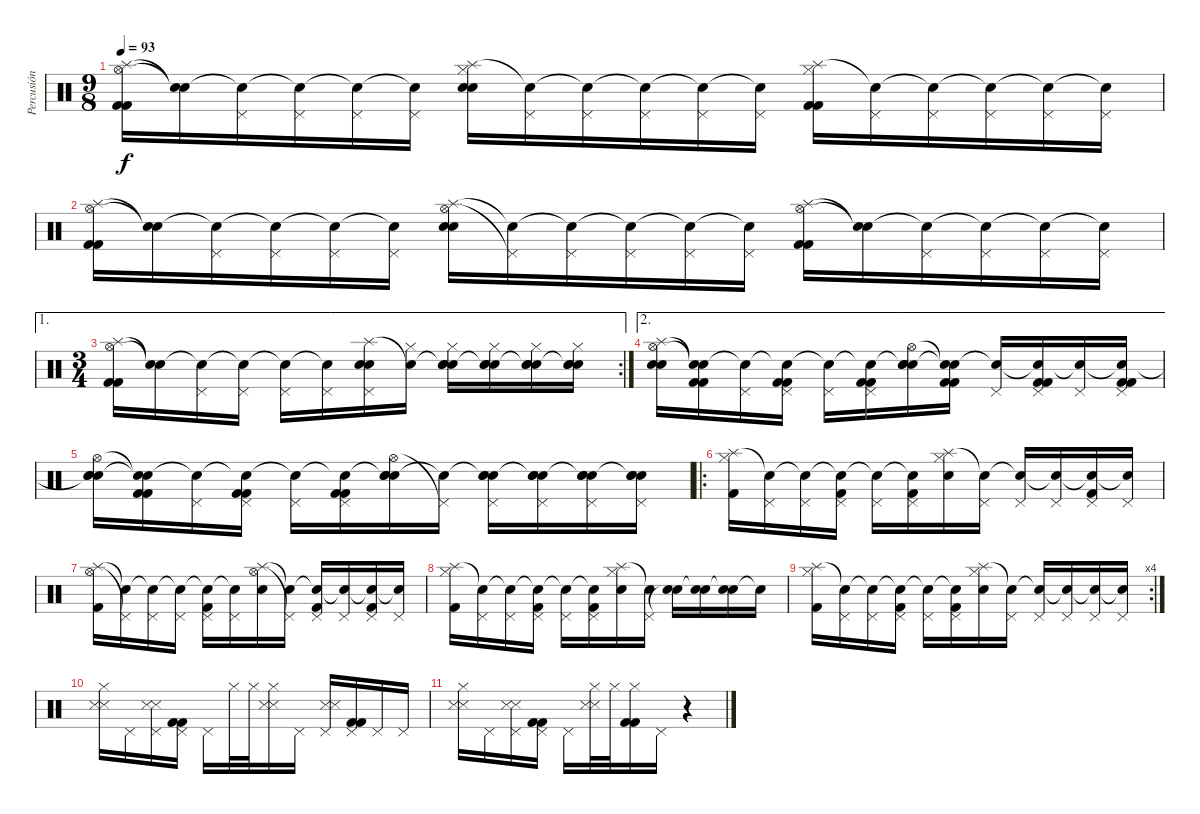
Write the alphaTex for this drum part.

\track ("Percusión" "Percusión") {instrument percussion}
\staff {score}
\articulation defaults
\ts (9 8)
\tempo 93
\clef neutral
\ks c
("Hi-Hat (open)" "Splash (hit)" "Kick (hit) 2" "Kick (hit) 2").16{dy f} ("Snare (hit)"{t} "Snare (hit)"{t}).16 ("Pedal Hi-Hat (hit)" "Snare (hit)"{t}).16 ("Pedal Hi-Hat (hit)" "Snare (hit)"{t}).16 ("Pedal Hi-Hat (hit)" "Snare (hit)"{t}).16 ("Pedal Hi-Hat (hit)" "Snare (hit)"{t}).16 ("Hi-Hat (closed)" "Splash (hit)" "Electric Snare (hit)" "Electric Snare (hit)").16 ("Pedal Hi-Hat (hit)" "Snare (hit)"{t}).16 ("Pedal Hi-Hat (hit)" "Snare (hit)"{t}).16 ("Pedal Hi-Hat (hit)" "Snare (hit)"{t}).16 ("Pedal Hi-Hat (hit)" "Snare (hit)"{t}).16 ("Pedal Hi-Hat (hit)" "Snare (hit)"{t}).16 ("Hi-Hat (closed)" "Splash (hit)" "Kick (hit) 2" "Kick (hit) 2").16 ("Pedal Hi-Hat (hit)" "Snare (hit)"{t}).16 ("Pedal Hi-Hat (hit)" "Snare (hit)"{t}).16 ("Pedal Hi-Hat (hit)" "Snare (hit)"{t}).16 ("Pedal Hi-Hat (hit)" "Snare (hit)"{t}).16 ("Pedal Hi-Hat (hit)" "Snare (hit)"{t}).16 |
("Hi-Hat (open)" "Splash (hit)" "Kick (hit) 2" "Kick (hit) 2").16 ("Snare (hit)"{t} "Snare (hit)"{t}).16 ("Pedal Hi-Hat (hit)" "Snare (hit)"{t}).16 ("Pedal Hi-Hat (hit)" "Snare (hit)"{t}).16 ("Pedal Hi-Hat (hit)" "Snare (hit)"{t}).16 ("Pedal Hi-Hat (hit)" "Snare (hit)"{t}).16 ("Hi-Hat (open)" "Splash (hit)" "Electric Snare (hit)" "Electric Snare (hit)").16 ("Pedal Hi-Hat (hit)"{t} "Snare (hit)"{t}).16 ("Pedal Hi-Hat (hit)" "Snare (hit)"{t}).16 ("Pedal Hi-Hat (hit)" "Snare (hit)"{t}).16 ("Pedal Hi-Hat (hit)" "Snare (hit)"{t}).16 ("Pedal Hi-Hat (hit)" "Snare (hit)"{t}).16 ("Hi-Hat (open)" "Splash (hit)" "Kick (hit) 2" "Kick (hit) 2").16 ("Snare (hit)"{t} "Snare (hit)"{t}).16 ("Pedal Hi-Hat (hit)" "Snare (hit)"{t}).16 ("Pedal Hi-Hat (hit)" "Snare (hit)"{t}).16 ("Pedal Hi-Hat (hit)" "Snare (hit)"{t}).16 ("Pedal Hi-Hat (hit)" "Snare (hit)"{t}).16 |
\ae 1
\rc 2
\ts (3 4)
("Hi-Hat (open)" "Splash (hit)" "Kick (hit) 2" "Kick (hit) 2").16 ("Snare (hit)"{t} "Snare (hit)"{t}).16 ("Pedal Hi-Hat (hit)" "Snare (hit)"{t}).16 ("Pedal Hi-Hat (hit)" "Snare (hit)"{t}).16 ("Pedal Hi-Hat (hit)" "Snare (hit)"{t}).16 ("Pedal Hi-Hat (hit)" "Snare (hit)"{t}).16 ("Pedal Hi-Hat (hit)" "Splash (hit)" "Electric Snare (hit)" "Electric Snare (hit)").16 ("Hi-Hat (closed)" "Snare (hit)"{t}).16 ("Hi-Hat (closed)" "Snare (hit)"{t} "Electric Snare (hit)" "Electric Snare (hit)").16 ("Hi-Hat (closed)" "Snare (hit)"{t} "Electric Snare (hit)" "Electric Snare (hit)").16 ("Hi-Hat (closed)" "Snare (hit)"{t} "Electric Snare (hit)" "Electric Snare (hit)").16 ("Hi-Hat (closed)" "Snare (hit)"{t} "Electric Snare (hit)" "Electric Snare (hit)").16 |
\ae 2
("Hi-Hat (open)" "Splash (hit)" "Electric Snare (hit)" "Electric Snare (hit)").16 ("Snare (hit)"{t} "Snare (hit)"{t} "Kick (hit) 2" "Kick (hit) 2").16 ("Pedal Hi-Hat (hit)" "Snare (hit)"{t}).16 ("Pedal Hi-Hat (hit)" "Snare (hit)"{t} "Kick (hit) 2" "Kick (hit) 2").16 ("Pedal Hi-Hat (hit)" "Snare (hit)"{t}).16 ("Pedal Hi-Hat (hit)" "Snare (hit)"{t} "Kick (hit) 2" "Kick (hit) 2").16 ("Hi-Hat (open)" "Snare (hit)"{t} "Electric Snare (hit)" "Electric Snare (hit)").16 ("Snare (hit)"{t} "Snare (hit)"{t} "Kick (hit) 2" "Kick (hit) 2").16 ("Pedal Hi-Hat (hit)" "Snare (hit)"{t}).16 ("Pedal Hi-Hat (hit)" "Snare (hit)"{t} "Kick (hit) 2" "Kick (hit) 2").16 ("Pedal Hi-Hat (hit)" "Snare (hit)"{t}).16 ("Pedal Hi-Hat (hit)" "Snare (hit)"{t} "Kick (hit) 2" "Kick (hit) 2").16 |
("Hi-Hat (open)" "Snare (hit)"{t} "Electric Snare (hit)" "Electric Snare (hit)").16 ("Snare (hit)"{t} "Snare (hit)"{t} "Kick (hit) 2" "Kick (hit) 2").16 ("Pedal Hi-Hat (hit)" "Snare (hit)"{t}).16 ("Pedal Hi-Hat (hit)" "Snare (hit)"{t} "Kick (hit) 2" "Kick (hit) 2").16 ("Pedal Hi-Hat (hit)" "Snare (hit)"{t}).16 ("Pedal Hi-Hat (hit)" "Snare (hit)"{t} "Kick (hit) 2" "Kick (hit) 2").16 ("Hi-Hat (open)" "Snare (hit)"{t} "Electric Snare (hit)" "Electric Snare (hit)").16 ("Pedal Hi-Hat (hit)"{t} "Snare (hit)"{t}).16 ("Pedal Hi-Hat (hit)" "Snare (hit)"{t} "Electric Snare (hit)" "Electric Snare (hit)").16 ("Pedal Hi-Hat (hit)" "Snare (hit)"{t} "Electric Snare (hit)" "Electric Snare (hit)").16 ("Pedal Hi-Hat (hit)" "Snare (hit)"{t} "Electric Snare (hit)" "Electric Snare (hit)").16 ("Pedal Hi-Hat (hit)" "Snare (hit)"{t} "Electric Snare (hit)" "Electric Snare (hit)").16 |
\ro
("Hi-Hat (closed)" "Splash (hit)" "Kick (hit) 2").16 ("Pedal Hi-Hat (hit)" "Snare (hit)"{t}).16 ("Pedal Hi-Hat (hit)" "Snare (hit)"{t}).16 ("Pedal Hi-Hat (hit)" "Snare (hit)"{t} "Kick (hit) 2").16 ("Pedal Hi-Hat (hit)" "Snare (hit)"{t}).16 ("Pedal Hi-Hat (hit)" "Snare (hit)"{t} "Kick (hit) 2").16 ("Hi-Hat (closed)" "Splash (hit)" "Electric Snare (hit)").16 ("Pedal Hi-Hat (hit)" "Snare (hit)"{t}).16 ("Pedal Hi-Hat (hit)" "Snare (hit)"{t}).16 ("Pedal Hi-Hat (hit)" "Snare (hit)"{t}).16 ("Pedal Hi-Hat (hit)" "Snare (hit)"{t} "Kick (hit) 2").16 ("Pedal Hi-Hat (hit)" "Snare (hit)"{t}).16 |
("Hi-Hat (open)" "Splash (hit)" "Kick (hit) 2").16 ("Pedal Hi-Hat (hit)"{t} "Snare (hit)"{t}).16 ("Pedal Hi-Hat (hit)" "Snare (hit)"{t}).16 ("Pedal Hi-Hat (hit)" "Snare (hit)"{t}).16 ("Pedal Hi-Hat (hit)" "Snare (hit)"{t} "Kick (hit) 2").16 ("Pedal Hi-Hat (hit)" "Snare (hit)"{t}).16 ("Hi-Hat (open)" "Splash (hit)" "Electric Snare (hit)").16 ("Pedal Hi-Hat (hit)"{t} "Snare (hit)"{t}).16 ("Pedal Hi-Hat (hit)" "Snare (hit)"{t} "Kick (hit) 2").16 ("Pedal Hi-Hat (hit)" "Snare (hit)"{t}).16 ("Pedal Hi-Hat (hit)" "Snare (hit)"{t} "Kick (hit) 2").16 ("Pedal Hi-Hat (hit)" "Snare (hit)"{t}).16 |
("Hi-Hat (closed)" "Splash (hit)" "Kick (hit) 2").16 ("Pedal Hi-Hat (hit)" "Snare (hit)"{t}).16 ("Pedal Hi-Hat (hit)" "Snare (hit)"{t}).16 ("Pedal Hi-Hat (hit)" "Snare (hit)"{t} "Kick (hit) 2").16 ("Pedal Hi-Hat (hit)" "Snare (hit)"{t}).16 ("Pedal Hi-Hat (hit)" "Snare (hit)"{t} "Kick (hit) 2").16 ("Hi-Hat (closed)" "Splash (hit)" "Electric Snare (hit)").16 ("Pedal Hi-Hat (hit)" "Snare (hit)"{t}).16 ("Snare (hit)"{t} "Electric Snare (hit)").16 ("Snare (hit)"{t} "Electric Snare (hit)").16 ("Snare (hit)"{t} "Electric Snare (hit)").16 "Snare (hit)"{t}.16 |
\rc 4
("Hi-Hat (closed)" "Splash (hit)" "Kick (hit) 2").16 ("Pedal Hi-Hat (hit)" "Snare (hit)"{t}).16 ("Pedal Hi-Hat (hit)" "Snare (hit)"{t}).16 ("Pedal Hi-Hat (hit)" "Snare (hit)"{t} "Kick (hit) 2").16 ("Pedal Hi-Hat (hit)" "Snare (hit)"{t}).16 ("Pedal Hi-Hat (hit)" "Snare (hit)"{t} "Kick (hit) 2").16 ("Hi-Hat (closed)" "Splash (hit)" "Electric Snare (hit)").16 ("Pedal Hi-Hat (hit)" "Snare (hit)"{t}).16 ("Pedal Hi-Hat (hit)" "Snare (hit)"{t}).16 ("Pedal Hi-Hat (hit)" "Snare (hit)"{t}).16 ("Pedal Hi-Hat (hit)" "Snare (hit)"{t}).16 ("Pedal Hi-Hat (hit)" "Snare (hit)"{t}).16 |
("Hi-Hat (closed)" "Snare (side stick) 3" "Snare (side stick) 3").16 "Pedal Hi-Hat (hit)".16 ("Pedal Hi-Hat (hit)" "Snare (side stick) 3" "Snare (side stick) 3").16 ("Pedal Hi-Hat (hit)" "Kick (hit) 2" "Kick (hit) 2").16 "Pedal Hi-Hat (hit)".16 "Hi-Hat (closed)".32 "Hi-Hat (closed)".32 ("Hi-Hat (closed)" "Snare (side stick) 3" "Snare (side stick) 3").16 "Pedal Hi-Hat (hit)".16 ("Pedal Hi-Hat (hit)" "Snare (side stick) 3" "Snare (side stick) 3").16 ("Pedal Hi-Hat (hit)" "Kick (hit) 2" "Kick (hit) 2").16 "Pedal Hi-Hat (hit)".16 "Pedal Hi-Hat (hit)".16 |
("Hi-Hat (closed)" "Snare (side stick) 3" "Snare (side stick) 3").16 "Pedal Hi-Hat (hit)".16 ("Pedal Hi-Hat (hit)" "Snare (side stick) 3" "Snare (side stick) 3").16 ("Pedal Hi-Hat (hit)" "Kick (hit) 2" "Kick (hit) 2").16 "Pedal Hi-Hat (hit)".16 ("Hi-Hat (closed)" "Snare (side stick) 3" "Snare (side stick) 3").32 "Hi-Hat (closed)".32 ("Hi-Hat (closed)" "Kick (hit) 2" "Kick (hit) 2").16 "Pedal Hi-Hat (hit)".16 r.4
